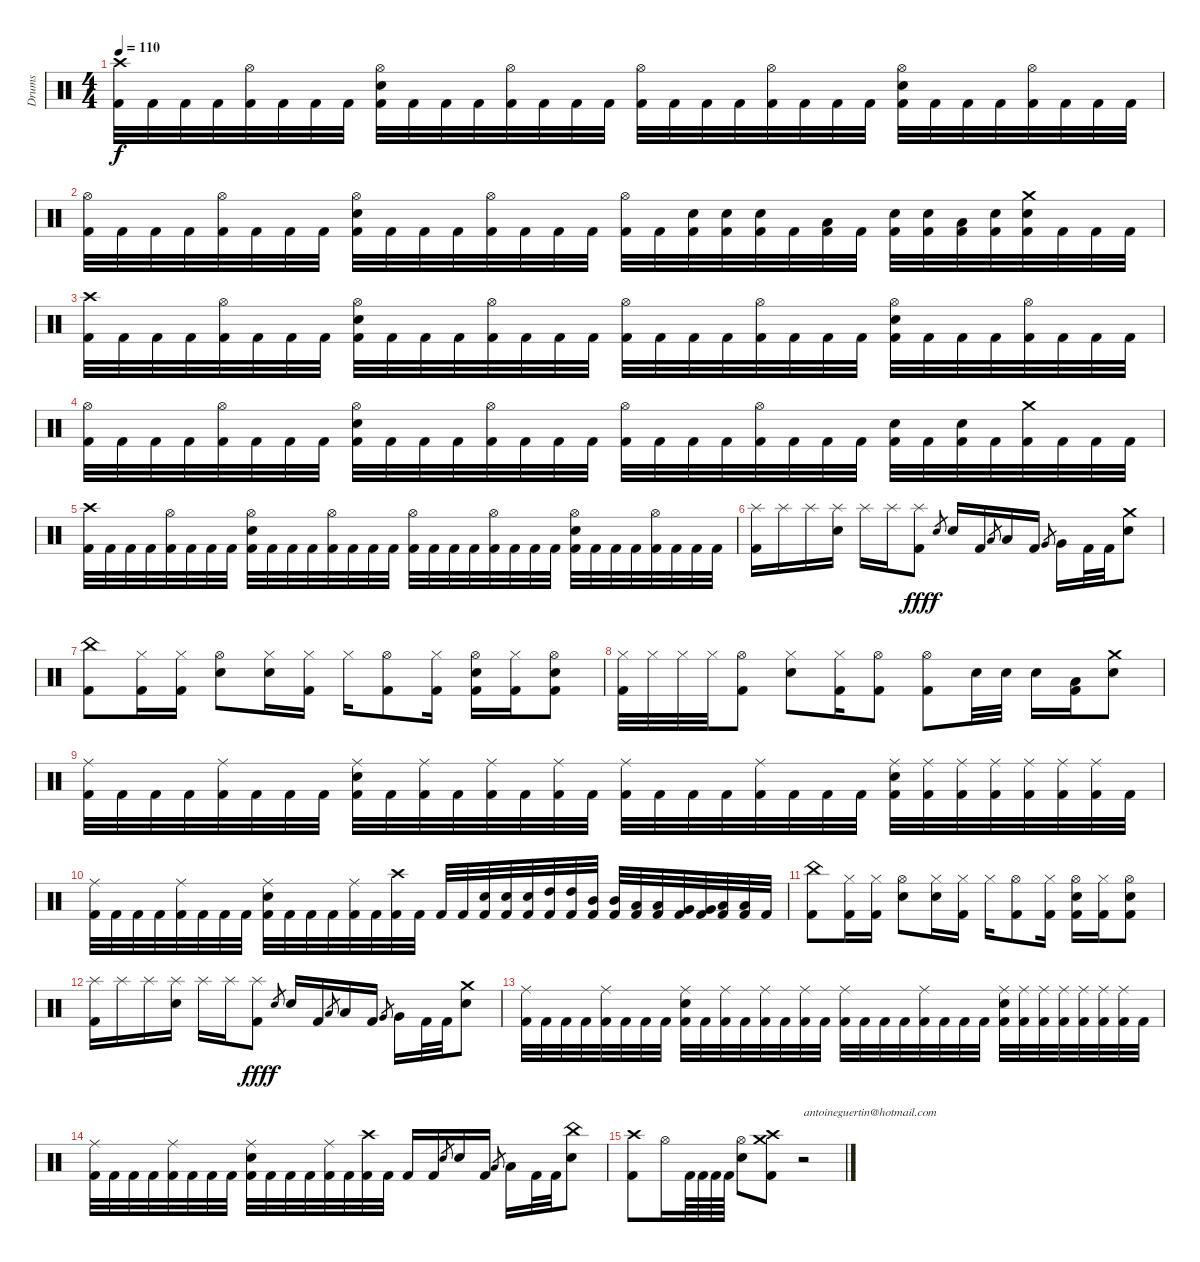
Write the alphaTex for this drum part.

\track ("Drums" "Drums") {instrument percussion}
\staff {score}
\articulation defaults
\ts (4 4)
\tempo 110
\clef neutral
\ks c
("Crash high (hit)" "Kick (hit) 2").32{dy f} "Kick (hit) 2".32 "Kick (hit) 2".32 "Kick (hit) 2".32 ("Hi-Hat (open)" "Kick (hit) 2").32 "Kick (hit) 2".32 "Kick (hit) 2".32 "Kick (hit) 2".32 ("Hi-Hat (open)" "Electric Snare (hit)" "Kick (hit) 2").32 "Kick (hit) 2".32 "Kick (hit) 2".32 "Kick (hit) 2".32 ("Hi-Hat (open)" "Kick (hit) 2").32 "Kick (hit) 2".32 "Kick (hit) 2".32 "Kick (hit) 2".32 ("Hi-Hat (open)" "Kick (hit) 2").32 "Kick (hit) 2".32 "Kick (hit) 2".32 "Kick (hit) 2".32 ("Hi-Hat (open)" "Kick (hit) 2").32 "Kick (hit) 2".32 "Kick (hit) 2".32 "Kick (hit) 2".32 ("Hi-Hat (open)" "Electric Snare (hit)" "Kick (hit) 2").32 "Kick (hit) 2".32 "Kick (hit) 2".32 "Kick (hit) 2".32 ("Hi-Hat (open)" "Kick (hit) 2").32 "Kick (hit) 2".32 "Kick (hit) 2".32 "Kick (hit) 2".32 |
("Hi-Hat (open)" "Kick (hit) 2").32 "Kick (hit) 2".32 "Kick (hit) 2".32 "Kick (hit) 2".32 ("Hi-Hat (open)" "Kick (hit) 2").32 "Kick (hit) 2".32 "Kick (hit) 2".32 "Kick (hit) 2".32 ("Hi-Hat (open)" "Electric Snare (hit)" "Kick (hit) 2").32 "Kick (hit) 2".32 "Kick (hit) 2".32 "Kick (hit) 2".32 ("Hi-Hat (open)" "Kick (hit) 2").32 "Kick (hit) 2".32 "Kick (hit) 2".32 "Kick (hit) 2".32 ("Hi-Hat (open)" "Kick (hit) 2").32 "Kick (hit) 2".32 ("Electric Snare (hit)" "Kick (hit) 2").32 ("Electric Snare (hit)" "Kick (hit) 2").32 ("Electric Snare (hit)" "Kick (hit) 2").32 "Kick (hit) 2".32 ("Low Tom (hit)" "Kick (hit) 2").32 "Kick (hit) 2".32 ("Electric Snare (hit)" "Kick (hit) 2").32 ("Electric Snare (hit)" "Kick (hit) 2").32 ("Low Tom (hit)" "Kick (hit) 2").32 ("Electric Snare (hit)" "Kick (hit) 2").32 ("Crash medium (hit)" "Electric Snare (hit)" "Kick (hit) 2").32 "Kick (hit) 2".32 "Kick (hit) 2".32 "Kick (hit) 2".32 |
("Crash high (hit)" "Kick (hit) 2").32 "Kick (hit) 2".32 "Kick (hit) 2".32 "Kick (hit) 2".32 ("Hi-Hat (open)" "Kick (hit) 2").32 "Kick (hit) 2".32 "Kick (hit) 2".32 "Kick (hit) 2".32 ("Hi-Hat (open)" "Electric Snare (hit)" "Kick (hit) 2").32 "Kick (hit) 2".32 "Kick (hit) 2".32 "Kick (hit) 2".32 ("Hi-Hat (open)" "Kick (hit) 2").32 "Kick (hit) 2".32 "Kick (hit) 2".32 "Kick (hit) 2".32 ("Hi-Hat (open)" "Kick (hit) 2").32 "Kick (hit) 2".32 "Kick (hit) 2".32 "Kick (hit) 2".32 ("Hi-Hat (open)" "Kick (hit) 2").32 "Kick (hit) 2".32 "Kick (hit) 2".32 "Kick (hit) 2".32 ("Hi-Hat (open)" "Electric Snare (hit)" "Kick (hit) 2").32 "Kick (hit) 2".32 "Kick (hit) 2".32 "Kick (hit) 2".32 ("Hi-Hat (open)" "Kick (hit) 2").32 "Kick (hit) 2".32 "Kick (hit) 2".32 "Kick (hit) 2".32 |
("Hi-Hat (open)" "Kick (hit) 2").32 "Kick (hit) 2".32 "Kick (hit) 2".32 "Kick (hit) 2".32 ("Hi-Hat (open)" "Kick (hit) 2").32 "Kick (hit) 2".32 "Kick (hit) 2".32 "Kick (hit) 2".32 ("Hi-Hat (open)" "Electric Snare (hit)" "Kick (hit) 2").32 "Kick (hit) 2".32 "Kick (hit) 2".32 "Kick (hit) 2".32 ("Hi-Hat (open)" "Kick (hit) 2").32 "Kick (hit) 2".32 "Kick (hit) 2".32 "Kick (hit) 2".32 ("Hi-Hat (open)" "Kick (hit) 2").32 "Kick (hit) 2".32 "Kick (hit) 2".32 "Kick (hit) 2".32 ("Hi-Hat (open)" "Kick (hit) 2").32 "Kick (hit) 2".32 "Kick (hit) 2".32 "Kick (hit) 2".32 ("Electric Snare (hit)" "Kick (hit) 2").32 "Kick (hit) 2".32 ("Electric Snare (hit)" "Kick (hit) 2").32 "Kick (hit) 2".32 ("Crash medium (hit)" "Kick (hit) 2").32 "Kick (hit) 2".32 "Kick (hit) 2".32 "Kick (hit) 2".32 |
("Crash high (hit)" "Kick (hit) 2").32 "Kick (hit) 2".32 "Kick (hit) 2".32 "Kick (hit) 2".32 ("Hi-Hat (open)" "Kick (hit) 2").32 "Kick (hit) 2".32 "Kick (hit) 2".32 "Kick (hit) 2".32 ("Hi-Hat (open)" "Electric Snare (hit)" "Kick (hit) 2").32 "Kick (hit) 2".32 "Kick (hit) 2".32 "Kick (hit) 2".32 ("Hi-Hat (open)" "Kick (hit) 2").32 "Kick (hit) 2".32 "Kick (hit) 2".32 "Kick (hit) 2".32 ("Hi-Hat (open)" "Kick (hit) 2").32 "Kick (hit) 2".32 "Kick (hit) 2".32 "Kick (hit) 2".32 ("Hi-Hat (open)" "Kick (hit) 2").32 "Kick (hit) 2".32 "Kick (hit) 2".32 "Kick (hit) 2".32 ("Hi-Hat (open)" "Electric Snare (hit)" "Kick (hit) 2").32 "Kick (hit) 2".32 "Kick (hit) 2".32 "Kick (hit) 2".32 ("Hi-Hat (open)" "Kick (hit) 2").32 "Kick (hit) 2".32 "Kick (hit) 2".32 "Kick (hit) 2".32 |
("Splash (hit)" "Kick (hit) 2").16 "Splash (hit)".16 "Splash (hit)".16 ("Splash (hit)" "Electric Snare (hit)").16 "Splash (hit)".16 "Splash (hit)".16 ("Splash (hit)" "Kick (hit) 2").8{dy fff} "Electric Snare (hit)".8{gr dy f} "Electric Snare (hit)".16 "Kick (hit) 2".16 "Low Tom (hit)".8{gr} "Low Tom (hit)".16 "Kick (hit) 2".16 "Very Low Tom (hit)".8{gr} "Very Low Tom (hit)".16 "Kick (hit) 2".32 "Kick (hit) 2".32 ("Crash medium (hit)" "Electric Snare (hit)").8 |
("China (hit)" "Kick (hit) 2").8 ("Hi-Hat (closed)" "Kick (hit) 2").16 ("Hi-Hat (closed)" "Kick (hit) 2").16 ("Hi-Hat (open)" "Electric Snare (hit)").8 ("Hi-Hat (closed)" "Electric Snare (hit)").16 ("Hi-Hat (closed)" "Kick (hit) 2").16 "Hi-Hat (closed)".16 ("Hi-Hat (open)" "Kick (hit) 2").8 ("Hi-Hat (closed)" "Kick (hit) 2").16 ("Hi-Hat (open)" "Electric Snare (hit)" "Kick (hit) 2").16 ("Hi-Hat (closed)" "Kick (hit) 2").16 ("Hi-Hat (open)" "Electric Snare (hit)" "Kick (hit) 2").8 |
("Hi-Hat (closed)" "Kick (hit) 2").32 "Hi-Hat (closed)".32 "Hi-Hat (closed)".32 "Hi-Hat (closed)".32 ("Hi-Hat (open)" "Kick (hit) 2").8 ("Hi-Hat (closed)" "Electric Snare (hit)").8 ("Hi-Hat (closed)" "Kick (hit) 2").16 ("Hi-Hat (open)" "Kick (hit) 2").8 ("Hi-Hat (open)" "Kick (hit) 2").8 "Electric Snare (hit)".32 "Electric Snare (hit)".32 "Electric Snare (hit)".16 ("Low Tom (hit)" "Kick (hit) 2").16 ("Crash medium (hit)" "Electric Snare (hit)").8 |
("Ride (middle)" "Kick (hit) 2").32 "Kick (hit) 2".32 "Kick (hit) 2".32 "Kick (hit) 2".32 ("Ride (middle)" "Kick (hit) 2").32 "Kick (hit) 2".32 "Kick (hit) 2".32 "Kick (hit) 2".32 ("Ride (middle)" "Electric Snare (hit)" "Kick (hit) 2").32 "Kick (hit) 2".32 ("Ride (middle)" "Kick (hit) 2").32 "Kick (hit) 2".32 ("Ride (middle)" "Kick (hit) 2").32 "Kick (hit) 2".32 ("Ride (middle)" "Kick (hit) 2").32 "Kick (hit) 2".32 ("Ride (middle)" "Kick (hit) 2").32 "Kick (hit) 2".32 "Kick (hit) 2".32 "Kick (hit) 2".32 ("Ride (middle)" "Kick (hit) 2").32 "Kick (hit) 2".32 "Kick (hit) 2".32 "Kick (hit) 2".32 ("Ride (middle)" "Electric Snare (hit)" "Kick (hit) 2").32 ("Ride (middle)" "Kick (hit) 2").32 ("Ride (middle)" "Kick (hit) 2").32 ("Ride (middle)" "Kick (hit) 2").32 ("Ride (middle)" "Kick (hit) 2").32 ("Ride (middle)" "Kick (hit) 2").32 ("Ride (middle)" "Kick (hit) 2").32 "Kick (hit) 2".32 |
("Ride (middle)" "Kick (hit) 2").32 "Kick (hit) 2".32 "Kick (hit) 2".32 "Kick (hit) 2".32 ("Ride (middle)" "Kick (hit) 2").32 "Kick (hit) 2".32 "Kick (hit) 2".32 "Kick (hit) 2".32 ("Ride (middle)" "Electric Snare (hit)" "Kick (hit) 2").32 "Kick (hit) 2".32 "Kick (hit) 2".32 "Kick (hit) 2".32 ("Ride (middle)" "Kick (hit) 2").32 "Kick (hit) 2".32 ("Crash high (hit)" "Kick (hit) 2").32 "Kick (hit) 2".32 "Kick (hit) 2".32 "Kick (hit) 2".32 ("Electric Snare (hit)" "Kick (hit) 2").32 ("Electric Snare (hit)" "Kick (hit) 2").32 ("Electric Snare (hit)" "Kick (hit) 2").32 ("High Tom (hit)" "Kick (hit) 2").32 ("High Tom (hit)" "Kick (hit) 2").32 ("Mid Tom (hit)" "Kick (hit) 2").32 ("Mid Tom (hit)" "Kick (hit) 2").32 ("Low Tom (hit)" "Kick (hit) 2").32 ("Low Tom (hit)" "Kick (hit) 2").32 ("Very Low Tom (hit)" "Kick (hit) 2").32 ("Very Low Tom (hit)" "Kick (hit) 2").32 ("Low Floor Tom (hit)" "Kick (hit) 2").32 ("Low Floor Tom (hit)" "Kick (hit) 2").32 "Kick (hit) 2".32 |
("China (hit)" "Kick (hit) 2").8 ("Hi-Hat (closed)" "Kick (hit) 2").16 ("Hi-Hat (closed)" "Kick (hit) 2").16 ("Hi-Hat (open)" "Electric Snare (hit)").8 ("Hi-Hat (closed)" "Electric Snare (hit)").16 ("Hi-Hat (closed)" "Kick (hit) 2").16 "Hi-Hat (closed)".16 ("Hi-Hat (open)" "Kick (hit) 2").8 ("Hi-Hat (closed)" "Kick (hit) 2").16 ("Hi-Hat (open)" "Electric Snare (hit)" "Kick (hit) 2").16 ("Hi-Hat (closed)" "Kick (hit) 2").16 ("Hi-Hat (open)" "Electric Snare (hit)" "Kick (hit) 2").8 |
("Splash (hit)" "Kick (hit) 2").16 "Splash (hit)".16 "Splash (hit)".16 ("Splash (hit)" "Electric Snare (hit)").16 "Splash (hit)".16 "Splash (hit)".16 ("Splash (hit)" "Kick (hit) 2").8{dy fff} "Electric Snare (hit)".8{gr dy f} "Electric Snare (hit)".16 "Kick (hit) 2".16 "Low Tom (hit)".8{gr} "Low Tom (hit)".16 "Kick (hit) 2".16 "Very Low Tom (hit)".8{gr} "Very Low Tom (hit)".16 "Kick (hit) 2".32 "Kick (hit) 2".32 ("Crash medium (hit)" "Electric Snare (hit)").8 |
("Ride (middle)" "Kick (hit) 2").32 "Kick (hit) 2".32 "Kick (hit) 2".32 "Kick (hit) 2".32 ("Ride (middle)" "Kick (hit) 2").32 "Kick (hit) 2".32 "Kick (hit) 2".32 "Kick (hit) 2".32 ("Ride (middle)" "Electric Snare (hit)" "Kick (hit) 2").32 "Kick (hit) 2".32 ("Ride (middle)" "Kick (hit) 2").32 "Kick (hit) 2".32 ("Ride (middle)" "Kick (hit) 2").32 "Kick (hit) 2".32 ("Ride (middle)" "Kick (hit) 2").32 "Kick (hit) 2".32 ("Ride (middle)" "Kick (hit) 2").32 "Kick (hit) 2".32 "Kick (hit) 2".32 "Kick (hit) 2".32 ("Ride (middle)" "Kick (hit) 2").32 "Kick (hit) 2".32 "Kick (hit) 2".32 "Kick (hit) 2".32 ("Ride (middle)" "Electric Snare (hit)" "Kick (hit) 2").32 ("Ride (middle)" "Kick (hit) 2").32 ("Ride (middle)" "Kick (hit) 2").32 ("Ride (middle)" "Kick (hit) 2").32 ("Ride (middle)" "Kick (hit) 2").32 ("Ride (middle)" "Kick (hit) 2").32 ("Ride (middle)" "Kick (hit) 2").32 "Kick (hit) 2".32 |
("Ride (middle)" "Kick (hit) 2").32 "Kick (hit) 2".32 "Kick (hit) 2".32 "Kick (hit) 2".32 ("Ride (middle)" "Kick (hit) 2").32 "Kick (hit) 2".32 "Kick (hit) 2".32 "Kick (hit) 2".32 ("Ride (middle)" "Electric Snare (hit)" "Kick (hit) 2").32 "Kick (hit) 2".32 "Kick (hit) 2".32 "Kick (hit) 2".32 ("Ride (middle)" "Kick (hit) 2").32 "Kick (hit) 2".32 ("Crash high (hit)" "Kick (hit) 2").32 "Kick (hit) 2".32 "Kick (hit) 2".16 "Kick (hit) 2".16 "Electric Snare (hit)".8{gr} "Electric Snare (hit)".16 "Kick (hit) 2".16 "Low Floor Tom (hit)".8{gr} "Low Tom (hit)".16 "Kick (hit) 2".32 "Kick (hit) 2".32 ("China (hit)" "Electric Snare (hit)").8 |
("Crash high (hit)" "Kick (hit) 2").8 "Hi-Hat (open)".16 "Kick (hit) 2".64 "Kick (hit) 2".64 "Kick (hit) 2".64 "Kick (hit) 2".64 ("Hi-Hat (open)" "Electric Snare (hit)").8 ("Crash high (hit)" "Crash medium (hit)" "Kick (hit) 2").8 r.2{txt "antoineguertin@hotmail.com" volume 0}
